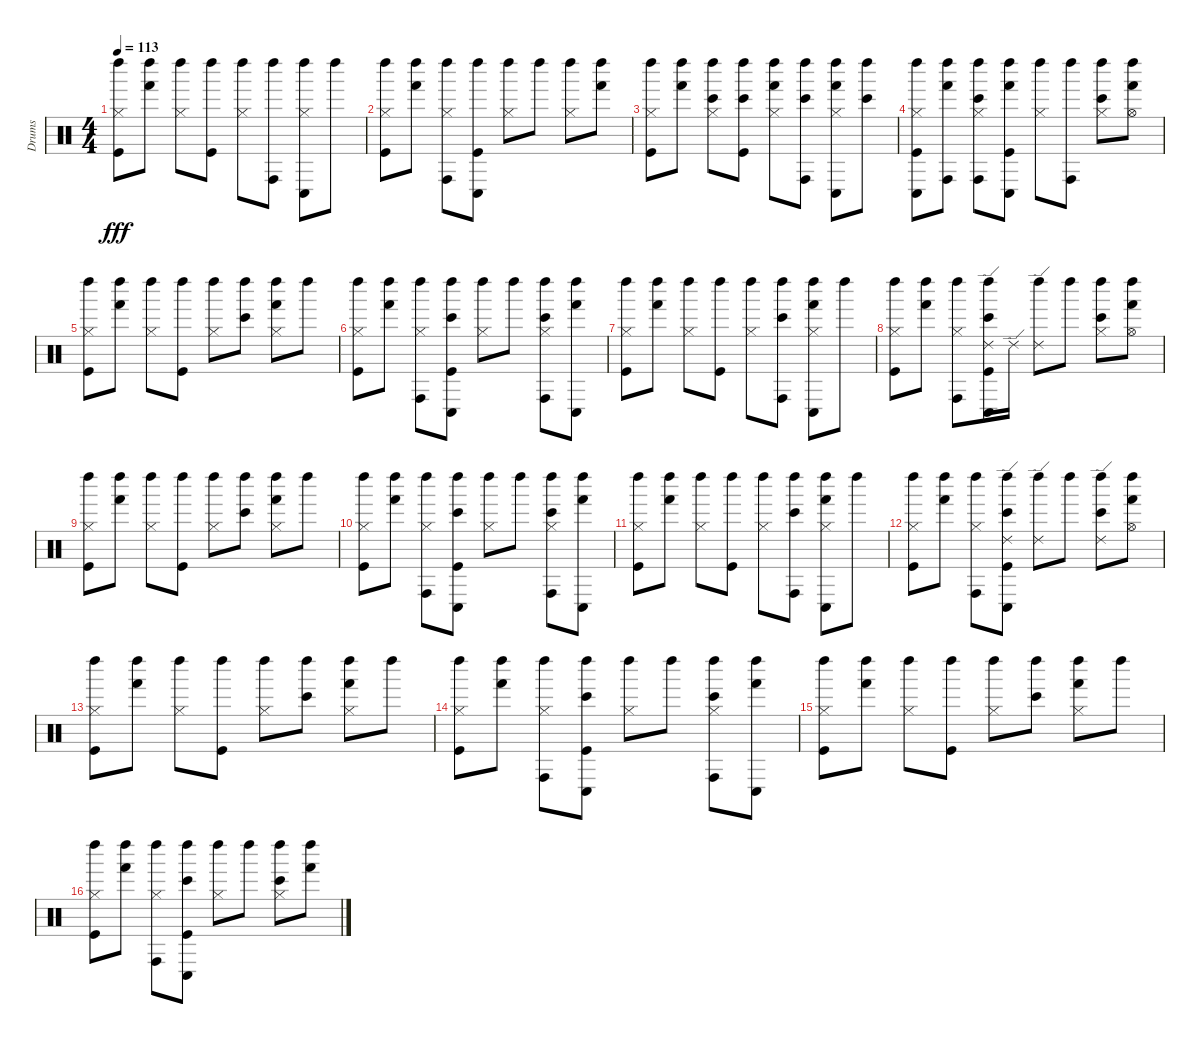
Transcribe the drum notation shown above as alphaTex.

\track ("Drums" "Drums") {instrument percussion}
\staff {score}
\articulation defaults
\ts (4 4)
\tempo 113
\clef neutral
\ks c
("Hi-Hat (closed)" "Left Maraca (hit)" "Kick (hit)").8{dy fff} ("Left Maraca (hit)" "Hand (hit)").8 ("Hi-Hat (closed)" "Left Maraca (hit)").8 ("Left Maraca (hit)" "Kick (hit)").8 ("Hi-Hat (closed)" "Left Maraca (hit)").8 ("Left Maraca (hit)" "Conga high (hit)").8 ("Hi-Hat (closed)" "Left Maraca (hit)" "Conga low (hit)").8 "Left Maraca (hit)".8 |
("Hi-Hat (closed)" "Left Maraca (hit)" "Kick (hit)").8 ("Left Maraca (hit)" "Hand (hit)").8 ("Hi-Hat (closed)" "Left Maraca (hit)" "Conga high (hit)").8 ("Left Maraca (hit)" "Conga low (hit)" "Kick (hit)").8 ("Hi-Hat (closed)" "Left Maraca (hit)").8 "Left Maraca (hit)".8 ("Hi-Hat (closed)" "Left Maraca (hit)").8 ("Left Maraca (hit)" "Hand (hit)").8 |
("Hi-Hat (closed)" "Left Maraca (hit)" "Kick (hit)").8 ("Left Maraca (hit)" "Hand (hit)").8 ("Hi-Hat (closed)" "Left Maraca (hit)" "Bongo High (hit)").8 ("Left Maraca (hit)" "Bongo High (hit)" "Kick (hit)").8 ("Hi-Hat (closed)" "Left Maraca (hit)" "Hand (hit)").8 ("Left Maraca (hit)" "Conga high (hit)" "Bongo High (hit)").8 ("Hi-Hat (closed)" "Left Maraca (hit)" "Conga low (hit)" "Hand (hit)").8 ("Left Maraca (hit)" "Bongo High (hit)").8 |
("Hi-Hat (closed)" "Left Maraca (hit)" "Conga low (hit)" "Kick (hit)").8 ("Left Maraca (hit)" "Conga high (hit)" "Hand (hit)").8 ("Hi-Hat (closed)" "Left Maraca (hit)" "Conga high (hit)" "Bongo High (hit)").8 ("Left Maraca (hit)" "Conga low (hit)" "Hand (hit)" "Kick (hit)").8 ("Hi-Hat (closed)" "Left Maraca (hit)").8 ("Left Maraca (hit)" "Conga high (hit)").8 ("Hi-Hat (closed)" "Left Maraca (hit)" "Bongo High (hit)").8 ("Hi-Hat (open)" "Left Maraca (hit)" "Hand (hit)").8 |
("Hi-Hat (closed)" "Left Maraca (hit)" "Kick (hit)").8 ("Left Maraca (hit)" "Hand (hit)").8 ("Hi-Hat (closed)" "Left Maraca (hit)").8 ("Left Maraca (hit)" "Kick (hit)").8 ("Hi-Hat (closed)" "Left Maraca (hit)").8 ("Left Maraca (hit)" "Bongo High (hit)").8 ("Hi-Hat (closed)" "Left Maraca (hit)" "Hand (hit)").8 "Left Maraca (hit)".8 |
("Hi-Hat (closed)" "Left Maraca (hit)" "Kick (hit)").8 ("Left Maraca (hit)" "Hand (hit)").8 ("Hi-Hat (closed)" "Left Maraca (hit)" "Conga high (hit)").8 ("Left Maraca (hit)" "Conga low (hit)" "Bongo High (hit)" "Kick (hit)").8 ("Hi-Hat (closed)" "Left Maraca (hit)").8 "Left Maraca (hit)".8 ("Hi-Hat (closed)" "Left Maraca (hit)" "Conga high (hit)" "Bongo High (hit)").8 ("Left Maraca (hit)" "Conga low (hit)" "Hand (hit)").8 |
("Hi-Hat (closed)" "Left Maraca (hit)" "Kick (hit)").8 ("Left Maraca (hit)" "Hand (hit)").8 ("Hi-Hat (closed)" "Left Maraca (hit)").8 ("Left Maraca (hit)" "Kick (hit)").8 ("Hi-Hat (closed)" "Left Maraca (hit)").8 ("Left Maraca (hit)" "Conga high (hit)" "Bongo High (hit)").8 ("Hi-Hat (closed)" "Left Maraca (hit)" "Conga low (hit)" "Hand (hit)").8 "Left Maraca (hit)".8 |
("Hi-Hat (closed)" "Left Maraca (hit)" "Kick (hit)").8 ("Left Maraca (hit)" "Hand (hit)").8 ("Hi-Hat (closed)" "Left Maraca (hit)" "Conga high (hit)").8 ("Ride (edge) 2" "Left Maraca (hit)" "Conga low (hit)" "Bongo High (hit)" "Kick (hit)").16 "Ride (edge) 2".16 ("Ride (edge) 2" "Left Maraca (hit)").8 "Left Maraca (hit)".8 ("Hi-Hat (closed)" "Left Maraca (hit)" "Bongo High (hit)").8 ("Hi-Hat (open)" "Left Maraca (hit)" "Hand (hit)").8 |
("Hi-Hat (closed)" "Left Maraca (hit)" "Kick (hit)").8 ("Left Maraca (hit)" "Hand (hit)").8 ("Hi-Hat (closed)" "Left Maraca (hit)").8 ("Left Maraca (hit)" "Kick (hit)").8 ("Hi-Hat (closed)" "Left Maraca (hit)").8 ("Left Maraca (hit)" "Bongo High (hit)").8 ("Hi-Hat (closed)" "Left Maraca (hit)" "Hand (hit)").8 "Left Maraca (hit)".8 |
("Hi-Hat (closed)" "Left Maraca (hit)" "Kick (hit)").8 ("Left Maraca (hit)" "Hand (hit)").8 ("Hi-Hat (closed)" "Left Maraca (hit)" "Conga high (hit)").8 ("Left Maraca (hit)" "Conga low (hit)" "Bongo High (hit)" "Kick (hit)").8 ("Hi-Hat (closed)" "Left Maraca (hit)").8 "Left Maraca (hit)".8 ("Hi-Hat (closed)" "Left Maraca (hit)" "Conga high (hit)" "Bongo High (hit)").8 ("Left Maraca (hit)" "Conga low (hit)" "Hand (hit)").8 |
("Hi-Hat (closed)" "Left Maraca (hit)" "Kick (hit)").8 ("Left Maraca (hit)" "Hand (hit)").8 ("Hi-Hat (closed)" "Left Maraca (hit)").8 ("Left Maraca (hit)" "Kick (hit)").8 ("Hi-Hat (closed)" "Left Maraca (hit)").8 ("Left Maraca (hit)" "Conga high (hit)" "Bongo High (hit)").8 ("Hi-Hat (closed)" "Left Maraca (hit)" "Conga low (hit)" "Hand (hit)").8 "Left Maraca (hit)".8 |
("Hi-Hat (closed)" "Left Maraca (hit)" "Kick (hit)").8 ("Left Maraca (hit)" "Hand (hit)").8 ("Hi-Hat (closed)" "Left Maraca (hit)" "Conga high (hit)").8 ("Ride (edge) 2" "Left Maraca (hit)" "Conga low (hit)" "Bongo High (hit)" "Kick (hit)").8 ("Ride (edge) 2" "Left Maraca (hit)").8 "Left Maraca (hit)".8 ("Ride (edge) 2" "Left Maraca (hit)" "Bongo High (hit)").8 ("Hi-Hat (open)" "Left Maraca (hit)" "Hand (hit)").8 |
("Hi-Hat (closed)" "Left Maraca (hit)" "Kick (hit)").8 ("Left Maraca (hit)" "Hand (hit)").8 ("Hi-Hat (closed)" "Left Maraca (hit)").8 ("Left Maraca (hit)" "Kick (hit)").8 ("Hi-Hat (closed)" "Left Maraca (hit)").8 ("Left Maraca (hit)" "Bongo High (hit)").8 ("Hi-Hat (closed)" "Left Maraca (hit)" "Hand (hit)").8 "Left Maraca (hit)".8 |
("Hi-Hat (closed)" "Left Maraca (hit)" "Kick (hit)").8 ("Left Maraca (hit)" "Hand (hit)").8 ("Hi-Hat (closed)" "Left Maraca (hit)" "Conga high (hit)").8 ("Left Maraca (hit)" "Conga low (hit)" "Bongo High (hit)" "Kick (hit)").8 ("Hi-Hat (closed)" "Left Maraca (hit)").8 "Left Maraca (hit)".8 ("Hi-Hat (closed)" "Left Maraca (hit)" "Conga high (hit)" "Bongo High (hit)").8 ("Left Maraca (hit)" "Conga low (hit)" "Hand (hit)").8 |
("Hi-Hat (closed)" "Left Maraca (hit)" "Kick (hit)").8 ("Left Maraca (hit)" "Hand (hit)").8 ("Hi-Hat (closed)" "Left Maraca (hit)").8 ("Left Maraca (hit)" "Kick (hit)").8 ("Hi-Hat (closed)" "Left Maraca (hit)").8 ("Left Maraca (hit)" "Bongo High (hit)").8 ("Hi-Hat (closed)" "Left Maraca (hit)" "Hand (hit)").8 "Left Maraca (hit)".8 |
("Hi-Hat (closed)" "Left Maraca (hit)" "Kick (hit)").8 ("Left Maraca (hit)" "Hand (hit)").8 ("Hi-Hat (closed)" "Left Maraca (hit)" "Conga high (hit)").8 ("Left Maraca (hit)" "Conga low (hit)" "Bongo High (hit)" "Kick (hit)").8 ("Hi-Hat (closed)" "Left Maraca (hit)").8 "Left Maraca (hit)".8 ("Hi-Hat (closed)" "Left Maraca (hit)" "Bongo High (hit)").8 ("Left Maraca (hit)" "Hand (hit)").8
